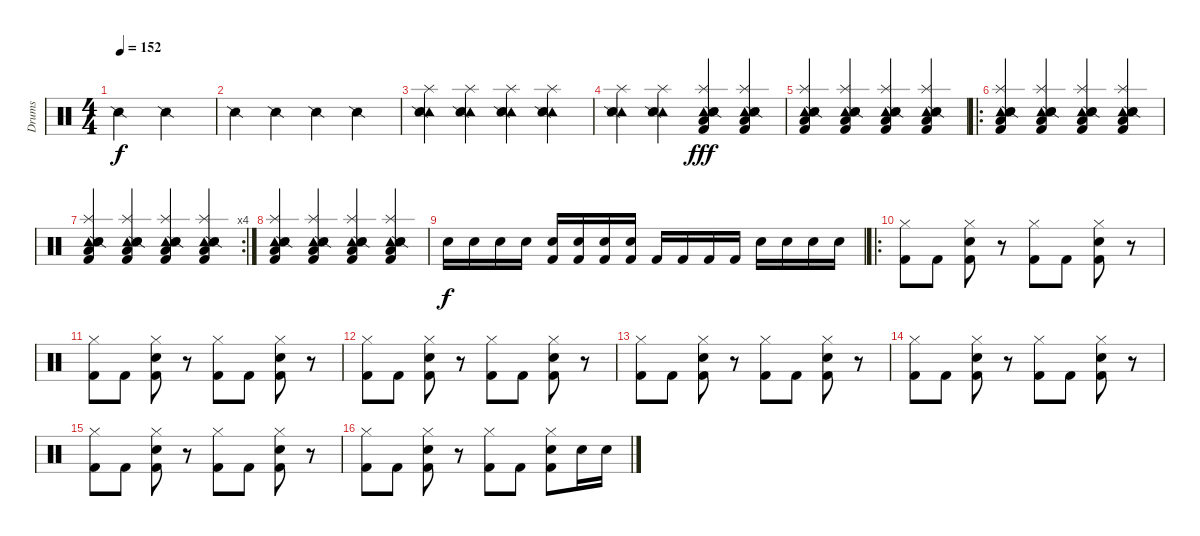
\track ("Drums" "Drums") {instrument percussion}
\staff {score}
\articulation defaults
\ts (4 4)
\tempo 152
\clef neutral
\ks c "Snare (side stick) 2".2{dy f} "Snare (side stick) 2".2
|
"Snare (side stick) 2".4 "Snare (side stick) 2".4 "Snare (side stick) 2".4 "Snare (side stick) 2".4 |
("Splash (hit)" "Tambourine (hit)" "Hand Clap (hit)" "Snare (side stick) 2").4 ("Splash (hit)" "Tambourine (hit)" "Hand Clap (hit)" "Snare (side stick) 2").4 ("Splash (hit)" "Tambourine (hit)" "Hand Clap (hit)" "Snare (side stick) 2").4 ("Splash (hit)" "Tambourine (hit)" "Hand Clap (hit)" "Snare (side stick) 2").4 |
("Splash (hit)" "Tambourine (hit)" "Hand Clap (hit)" "Snare (side stick) 2").4 ("Splash (hit)" "Tambourine (hit)" "Hand Clap (hit)" "Snare (side stick) 2").4 ("Low Floor Tom (hit)" "Splash (hit)" "Tambourine (hit)" "Hand Clap (hit)" "Snare (side stick) 2" "Kick (hit) 2").4{dy fff} ("Low Floor Tom (hit)" "Splash (hit)" "Tambourine (hit)" "Hand Clap (hit)" "Snare (side stick) 2" "Kick (hit) 2").4 |
("Low Floor Tom (hit)" "Splash (hit)" "Tambourine (hit)" "Hand Clap (hit)" "Snare (side stick) 2" "Kick (hit) 2").4 ("Low Floor Tom (hit)" "Splash (hit)" "Tambourine (hit)" "Hand Clap (hit)" "Snare (side stick) 2" "Kick (hit) 2").4 ("Low Floor Tom (hit)" "Splash (hit)" "Tambourine (hit)" "Hand Clap (hit)" "Snare (side stick) 2" "Kick (hit) 2").4 ("Low Floor Tom (hit)" "Splash (hit)" "Tambourine (hit)" "Hand Clap (hit)" "Snare (side stick) 2" "Kick (hit) 2").4 |
\ro
("Low Floor Tom (hit)" "Splash (hit)" "Tambourine (hit)" "Hand Clap (hit)" "Snare (side stick) 2" "Kick (hit) 2").4 ("Low Floor Tom (hit)" "Splash (hit)" "Tambourine (hit)" "Hand Clap (hit)" "Snare (side stick) 2" "Kick (hit) 2").4 ("Low Floor Tom (hit)" "Splash (hit)" "Tambourine (hit)" "Hand Clap (hit)" "Snare (side stick) 2" "Kick (hit) 2").4 ("Low Floor Tom (hit)" "Splash (hit)" "Tambourine (hit)" "Hand Clap (hit)" "Snare (side stick) 2" "Kick (hit) 2").4 |
\rc 4
("Low Floor Tom (hit)" "Splash (hit)" "Tambourine (hit)" "Hand Clap (hit)" "Snare (side stick) 2" "Kick (hit) 2").4 ("Low Floor Tom (hit)" "Splash (hit)" "Tambourine (hit)" "Hand Clap (hit)" "Snare (side stick) 2" "Kick (hit) 2").4 ("Low Floor Tom (hit)" "Splash (hit)" "Tambourine (hit)" "Hand Clap (hit)" "Snare (side stick) 2" "Kick (hit) 2").4 ("Low Floor Tom (hit)" "Splash (hit)" "Tambourine (hit)" "Hand Clap (hit)" "Snare (side stick) 2" "Kick (hit) 2").4 |
("Low Floor Tom (hit)" "Splash (hit)" "Tambourine (hit)" "Hand Clap (hit)" "Snare (side stick) 2" "Kick (hit) 2").4 ("Low Floor Tom (hit)" "Splash (hit)" "Tambourine (hit)" "Hand Clap (hit)" "Snare (side stick) 2" "Kick (hit) 2").4 ("Low Floor Tom (hit)" "Splash (hit)" "Tambourine (hit)" "Hand Clap (hit)" "Snare (side stick) 2" "Kick (hit) 2").4 ("Low Floor Tom (hit)" "Splash (hit)" "Tambourine (hit)" "Hand Clap (hit)" "Snare (side stick) 2" "Kick (hit) 2").4 |
"Electric Snare (hit)".16{dy f} "Electric Snare (hit)".16 "Electric Snare (hit)".16 "Electric Snare (hit)".16 ("Snare (hit) 2" "Kick (hit) 2").16 ("Snare (hit) 2" "Kick (hit) 2").16 ("Snare (hit) 2" "Kick (hit) 2").16 ("Snare (hit) 2" "Kick (hit) 2").16 "Kick (hit) 2".16 "Kick (hit) 2".16 "Kick (hit) 2".16 "Kick (hit) 2".16 "Electric Snare (hit)".16 "Electric Snare (hit)".16 "Electric Snare (hit)".16 "Electric Snare (hit)".16 |
\ro
("Hi-Hat (closed)" "Kick (hit) 2").8 "Kick (hit) 2".8 ("Hi-Hat (closed)" "Electric Snare (hit)" "Kick (hit) 2").8 r.8 ("Hi-Hat (closed)" "Kick (hit) 2").8 "Kick (hit) 2".8 ("Hi-Hat (closed)" "Electric Snare (hit)" "Kick (hit) 2").8 r.8 |
("Hi-Hat (closed)" "Kick (hit) 2").8 "Kick (hit) 2".8 ("Hi-Hat (closed)" "Electric Snare (hit)" "Kick (hit) 2").8 r.8 ("Hi-Hat (closed)" "Kick (hit) 2").8 "Kick (hit) 2".8 ("Hi-Hat (closed)" "Electric Snare (hit)" "Kick (hit) 2").8 r.8 |
("Hi-Hat (closed)" "Kick (hit) 2").8 "Kick (hit) 2".8 ("Hi-Hat (closed)" "Electric Snare (hit)" "Kick (hit) 2").8 r.8 ("Hi-Hat (closed)" "Kick (hit) 2").8 "Kick (hit) 2".8 ("Hi-Hat (closed)" "Electric Snare (hit)" "Kick (hit) 2").8 r.8 |
("Hi-Hat (closed)" "Kick (hit) 2").8 "Kick (hit) 2".8 ("Hi-Hat (closed)" "Electric Snare (hit)" "Kick (hit) 2").8 r.8 ("Hi-Hat (closed)" "Kick (hit) 2").8 "Kick (hit) 2".8 ("Hi-Hat (closed)" "Electric Snare (hit)" "Kick (hit) 2").8 r.8 |
("Hi-Hat (closed)" "Kick (hit) 2").8 "Kick (hit) 2".8 ("Hi-Hat (closed)" "Electric Snare (hit)" "Kick (hit) 2").8 r.8 ("Hi-Hat (closed)" "Kick (hit) 2").8 "Kick (hit) 2".8 ("Hi-Hat (closed)" "Electric Snare (hit)" "Kick (hit) 2").8 r.8 |
("Hi-Hat (closed)" "Kick (hit) 2").8 "Kick (hit) 2".8 ("Hi-Hat (closed)" "Electric Snare (hit)" "Kick (hit) 2").8 r.8 ("Hi-Hat (closed)" "Kick (hit) 2").8 "Kick (hit) 2".8 ("Hi-Hat (closed)" "Electric Snare (hit)" "Kick (hit) 2").8 r.8 |
("Hi-Hat (closed)" "Kick (hit) 2").8 "Kick (hit) 2".8 ("Hi-Hat (closed)" "Electric Snare (hit)" "Kick (hit) 2").8 r.8 ("Hi-Hat (closed)" "Kick (hit) 2").8 "Kick (hit) 2".8 ("Hi-Hat (closed)" "Electric Snare (hit)" "Kick (hit) 2").8 "Snare (hit) 2".16 "Snare (hit) 2".16
